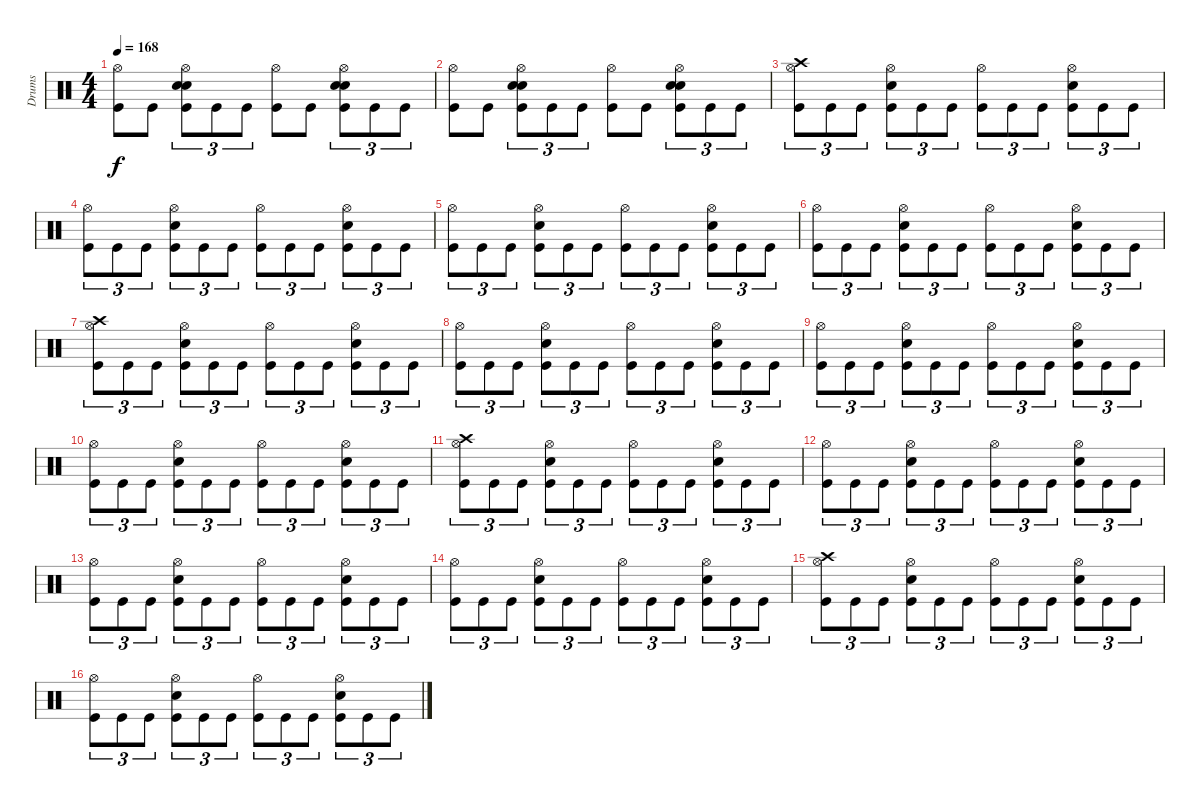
\track ("Drums" "Drums") {instrument percussion}
\staff {score}
\articulation defaults
\ts (4 4)
\tempo 168
\clef neutral
\ks c
("Hi-Hat (open)" "Kick (hit)").8{dy f} "Kick (hit)".8 ("Electric Snare (hit)" "Electric Snare (hit)" "Hi-Hat (open)" "Kick (hit)").8{tu (3 2)} "Kick (hit)".8{tu (3 2)} "Kick (hit)".8{tu (3 2)} ("Hi-Hat (open)" "Kick (hit)").8 "Kick (hit)".8 ("Electric Snare (hit)" "Electric Snare (hit)" "Hi-Hat (open)" "Kick (hit)").8{tu (3 2)} "Kick (hit)".8{tu (3 2)} "Kick (hit)".8{tu (3 2)} |
("Hi-Hat (open)" "Kick (hit)").8 "Kick (hit)".8 ("Electric Snare (hit)" "Electric Snare (hit)" "Hi-Hat (open)" "Kick (hit)").8{tu (3 2)} "Kick (hit)".8{tu (3 2)} "Kick (hit)".8{tu (3 2)} ("Hi-Hat (open)" "Kick (hit)").8 "Kick (hit)".8 ("Electric Snare (hit)" "Electric Snare (hit)" "Hi-Hat (open)" "Kick (hit)").8{tu (3 2)} "Kick (hit)".8{tu (3 2)} "Kick (hit)".8{tu (3 2)} |
("Hi-Hat (open)" "Crash high (hit)" "Kick (hit)").8{tu (3 2)} "Kick (hit)".8{tu (3 2)} "Kick (hit)".8{tu (3 2)} ("Hi-Hat (open)" "Electric Snare (hit)" "Kick (hit)").8{tu (3 2)} "Kick (hit)".8{tu (3 2)} "Kick (hit)".8{tu (3 2)} ("Hi-Hat (open)" "Kick (hit)").8{tu (3 2)} "Kick (hit)".8{tu (3 2)} "Kick (hit)".8{tu (3 2)} ("Hi-Hat (open)" "Electric Snare (hit)" "Kick (hit)").8{tu (3 2)} "Kick (hit)".8{tu (3 2)} "Kick (hit)".8{tu (3 2)} |
("Hi-Hat (open)" "Kick (hit)").8{tu (3 2)} "Kick (hit)".8{tu (3 2)} "Kick (hit)".8{tu (3 2)} ("Hi-Hat (open)" "Electric Snare (hit)" "Kick (hit)").8{tu (3 2)} "Kick (hit)".8{tu (3 2)} "Kick (hit)".8{tu (3 2)} ("Hi-Hat (open)" "Kick (hit)").8{tu (3 2)} "Kick (hit)".8{tu (3 2)} "Kick (hit)".8{tu (3 2)} ("Hi-Hat (open)" "Electric Snare (hit)" "Kick (hit)").8{tu (3 2)} "Kick (hit)".8{tu (3 2)} "Kick (hit)".8{tu (3 2)} |
("Hi-Hat (open)" "Kick (hit)").8{tu (3 2)} "Kick (hit)".8{tu (3 2)} "Kick (hit)".8{tu (3 2)} ("Hi-Hat (open)" "Electric Snare (hit)" "Kick (hit)").8{tu (3 2)} "Kick (hit)".8{tu (3 2)} "Kick (hit)".8{tu (3 2)} ("Hi-Hat (open)" "Kick (hit)").8{tu (3 2)} "Kick (hit)".8{tu (3 2)} "Kick (hit)".8{tu (3 2)} ("Hi-Hat (open)" "Electric Snare (hit)" "Kick (hit)").8{tu (3 2)} "Kick (hit)".8{tu (3 2)} "Kick (hit)".8{tu (3 2)} |
("Hi-Hat (open)" "Kick (hit)").8{tu (3 2)} "Kick (hit)".8{tu (3 2)} "Kick (hit)".8{tu (3 2)} ("Hi-Hat (open)" "Electric Snare (hit)" "Kick (hit)").8{tu (3 2)} "Kick (hit)".8{tu (3 2)} "Kick (hit)".8{tu (3 2)} ("Hi-Hat (open)" "Kick (hit)").8{tu (3 2)} "Kick (hit)".8{tu (3 2)} "Kick (hit)".8{tu (3 2)} ("Hi-Hat (open)" "Electric Snare (hit)" "Kick (hit)").8{tu (3 2)} "Kick (hit)".8{tu (3 2)} "Kick (hit)".8{tu (3 2)} |
("Hi-Hat (open)" "Crash high (hit)" "Kick (hit)").8{tu (3 2)} "Kick (hit)".8{tu (3 2)} "Kick (hit)".8{tu (3 2)} ("Hi-Hat (open)" "Electric Snare (hit)" "Kick (hit)").8{tu (3 2)} "Kick (hit)".8{tu (3 2)} "Kick (hit)".8{tu (3 2)} ("Hi-Hat (open)" "Kick (hit)").8{tu (3 2)} "Kick (hit)".8{tu (3 2)} "Kick (hit)".8{tu (3 2)} ("Hi-Hat (open)" "Electric Snare (hit)" "Kick (hit)").8{tu (3 2)} "Kick (hit)".8{tu (3 2)} "Kick (hit)".8{tu (3 2)} |
("Hi-Hat (open)" "Kick (hit)").8{tu (3 2)} "Kick (hit)".8{tu (3 2)} "Kick (hit)".8{tu (3 2)} ("Hi-Hat (open)" "Electric Snare (hit)" "Kick (hit)").8{tu (3 2)} "Kick (hit)".8{tu (3 2)} "Kick (hit)".8{tu (3 2)} ("Hi-Hat (open)" "Kick (hit)").8{tu (3 2)} "Kick (hit)".8{tu (3 2)} "Kick (hit)".8{tu (3 2)} ("Hi-Hat (open)" "Electric Snare (hit)" "Kick (hit)").8{tu (3 2)} "Kick (hit)".8{tu (3 2)} "Kick (hit)".8{tu (3 2)} |
("Hi-Hat (open)" "Kick (hit)").8{tu (3 2)} "Kick (hit)".8{tu (3 2)} "Kick (hit)".8{tu (3 2)} ("Hi-Hat (open)" "Electric Snare (hit)" "Kick (hit)").8{tu (3 2)} "Kick (hit)".8{tu (3 2)} "Kick (hit)".8{tu (3 2)} ("Hi-Hat (open)" "Kick (hit)").8{tu (3 2)} "Kick (hit)".8{tu (3 2)} "Kick (hit)".8{tu (3 2)} ("Hi-Hat (open)" "Electric Snare (hit)" "Kick (hit)").8{tu (3 2)} "Kick (hit)".8{tu (3 2)} "Kick (hit)".8{tu (3 2)} |
("Hi-Hat (open)" "Kick (hit)").8{tu (3 2)} "Kick (hit)".8{tu (3 2)} "Kick (hit)".8{tu (3 2)} ("Hi-Hat (open)" "Electric Snare (hit)" "Kick (hit)").8{tu (3 2)} "Kick (hit)".8{tu (3 2)} "Kick (hit)".8{tu (3 2)} ("Hi-Hat (open)" "Kick (hit)").8{tu (3 2)} "Kick (hit)".8{tu (3 2)} "Kick (hit)".8{tu (3 2)} ("Hi-Hat (open)" "Electric Snare (hit)" "Kick (hit)").8{tu (3 2)} "Kick (hit)".8{tu (3 2)} "Kick (hit)".8{tu (3 2)} |
("Hi-Hat (open)" "Crash high (hit)" "Kick (hit)").8{tu (3 2)} "Kick (hit)".8{tu (3 2)} "Kick (hit)".8{tu (3 2)} ("Hi-Hat (open)" "Electric Snare (hit)" "Kick (hit)").8{tu (3 2)} "Kick (hit)".8{tu (3 2)} "Kick (hit)".8{tu (3 2)} ("Hi-Hat (open)" "Kick (hit)").8{tu (3 2)} "Kick (hit)".8{tu (3 2)} "Kick (hit)".8{tu (3 2)} ("Hi-Hat (open)" "Electric Snare (hit)" "Kick (hit)").8{tu (3 2)} "Kick (hit)".8{tu (3 2)} "Kick (hit)".8{tu (3 2)} |
("Hi-Hat (open)" "Kick (hit)").8{tu (3 2)} "Kick (hit)".8{tu (3 2)} "Kick (hit)".8{tu (3 2)} ("Hi-Hat (open)" "Electric Snare (hit)" "Kick (hit)").8{tu (3 2)} "Kick (hit)".8{tu (3 2)} "Kick (hit)".8{tu (3 2)} ("Hi-Hat (open)" "Kick (hit)").8{tu (3 2)} "Kick (hit)".8{tu (3 2)} "Kick (hit)".8{tu (3 2)} ("Hi-Hat (open)" "Electric Snare (hit)" "Kick (hit)").8{tu (3 2)} "Kick (hit)".8{tu (3 2)} "Kick (hit)".8{tu (3 2)} |
("Hi-Hat (open)" "Kick (hit)").8{tu (3 2)} "Kick (hit)".8{tu (3 2)} "Kick (hit)".8{tu (3 2)} ("Hi-Hat (open)" "Electric Snare (hit)" "Kick (hit)").8{tu (3 2)} "Kick (hit)".8{tu (3 2)} "Kick (hit)".8{tu (3 2)} ("Hi-Hat (open)" "Kick (hit)").8{tu (3 2)} "Kick (hit)".8{tu (3 2)} "Kick (hit)".8{tu (3 2)} ("Hi-Hat (open)" "Electric Snare (hit)" "Kick (hit)").8{tu (3 2)} "Kick (hit)".8{tu (3 2)} "Kick (hit)".8{tu (3 2)} |
("Hi-Hat (open)" "Kick (hit)").8{tu (3 2)} "Kick (hit)".8{tu (3 2)} "Kick (hit)".8{tu (3 2)} ("Hi-Hat (open)" "Electric Snare (hit)" "Kick (hit)").8{tu (3 2)} "Kick (hit)".8{tu (3 2)} "Kick (hit)".8{tu (3 2)} ("Hi-Hat (open)" "Kick (hit)").8{tu (3 2)} "Kick (hit)".8{tu (3 2)} "Kick (hit)".8{tu (3 2)} ("Hi-Hat (open)" "Electric Snare (hit)" "Kick (hit)").8{tu (3 2)} "Kick (hit)".8{tu (3 2)} "Kick (hit)".8{tu (3 2)} |
("Hi-Hat (open)" "Crash high (hit)" "Kick (hit)").8{tu (3 2)} "Kick (hit)".8{tu (3 2)} "Kick (hit)".8{tu (3 2)} ("Hi-Hat (open)" "Electric Snare (hit)" "Kick (hit)").8{tu (3 2)} "Kick (hit)".8{tu (3 2)} "Kick (hit)".8{tu (3 2)} ("Hi-Hat (open)" "Kick (hit)").8{tu (3 2)} "Kick (hit)".8{tu (3 2)} "Kick (hit)".8{tu (3 2)} ("Hi-Hat (open)" "Electric Snare (hit)" "Kick (hit)").8{tu (3 2)} "Kick (hit)".8{tu (3 2)} "Kick (hit)".8{tu (3 2)} |
("Hi-Hat (open)" "Kick (hit)").8{tu (3 2)} "Kick (hit)".8{tu (3 2)} "Kick (hit)".8{tu (3 2)} ("Hi-Hat (open)" "Electric Snare (hit)" "Kick (hit)").8{tu (3 2)} "Kick (hit)".8{tu (3 2)} "Kick (hit)".8{tu (3 2)} ("Hi-Hat (open)" "Kick (hit)").8{tu (3 2)} "Kick (hit)".8{tu (3 2)} "Kick (hit)".8{tu (3 2)} ("Hi-Hat (open)" "Electric Snare (hit)" "Kick (hit)").8{tu (3 2)} "Kick (hit)".8{tu (3 2)} "Kick (hit)".8{tu (3 2)}
